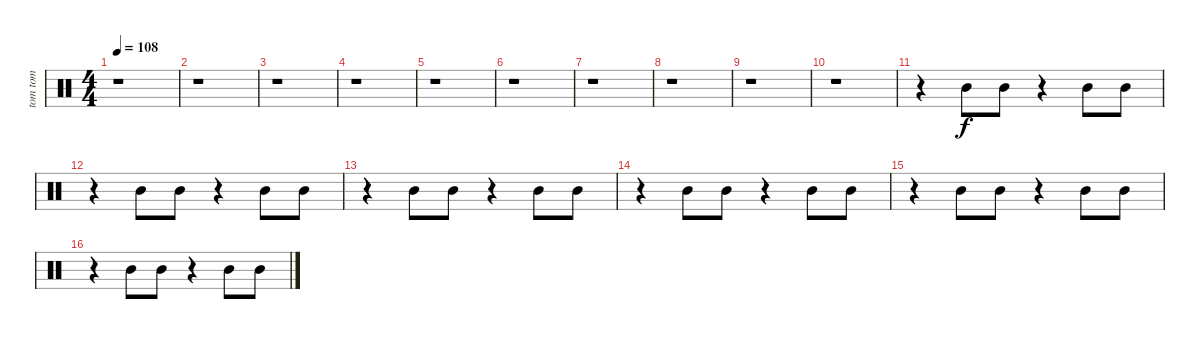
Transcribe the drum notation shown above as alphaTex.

\track ("tom tom             " "tom tom   ") {instrument percussion}
\staff {score}
\articulation defaults
\ts (4 4)
\tempo 108
\clef neutral
\ks c
r.1{dy f} |
r.1 |
r.1 |
r.1 |
r.1 |
r.1 |
r.1 |
r.1 |
r.1 |
r.1 |
r.4 "Mid Tom (hit)".8 "Mid Tom (hit)".8 r.4 "Mid Tom (hit)".8 "Mid Tom (hit)".8 |
r.4 "Mid Tom (hit)".8 "Mid Tom (hit)".8 r.4 "Mid Tom (hit)".8 "Mid Tom (hit)".8 |
r.4 "Mid Tom (hit)".8 "Mid Tom (hit)".8 r.4 "Mid Tom (hit)".8 "Mid Tom (hit)".8 |
r.4 "Mid Tom (hit)".8 "Mid Tom (hit)".8 r.4 "Mid Tom (hit)".8 "Mid Tom (hit)".8 |
r.4 "Mid Tom (hit)".8 "Mid Tom (hit)".8 r.4 "Mid Tom (hit)".8 "Mid Tom (hit)".8 |
r.4 "Mid Tom (hit)".8 "Mid Tom (hit)".8 r.4 "Mid Tom (hit)".8 "Mid Tom (hit)".8
